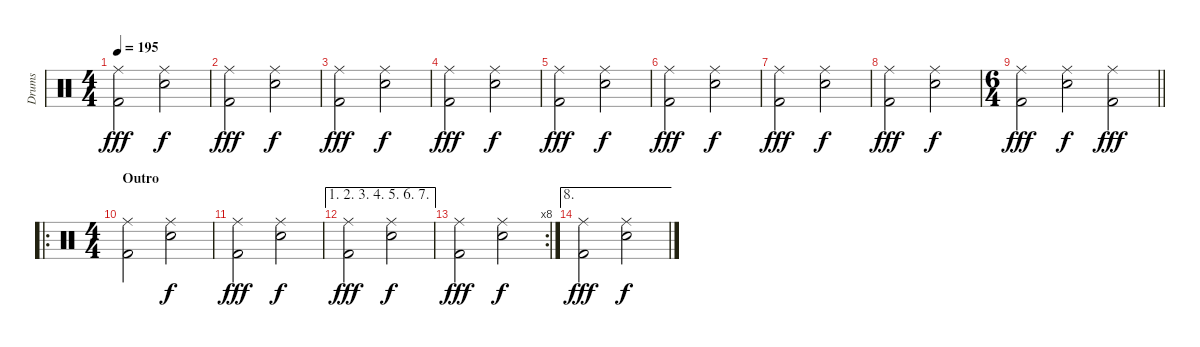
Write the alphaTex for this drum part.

\track ("Drums" "Drums") {instrument percussion}
\staff {score}
\articulation defaults
\ts (4 4)
\tempo 195
\clef neutral
\ks c
("Ride (middle)" "Kick (hit) 2").2{dy fff} ("Ride (middle)" "Snare (hit) 2").2{dy f} |
("Ride (middle)" "Kick (hit) 2").2{dy fff} ("Ride (middle)" "Snare (hit) 2").2{dy f} |
("Ride (middle)" "Kick (hit) 2").2{dy fff} ("Ride (middle)" "Snare (hit) 2").2{dy f} |
("Ride (middle)" "Kick (hit) 2").2{dy fff} ("Ride (middle)" "Snare (hit) 2").2{dy f} |
("Ride (middle)" "Kick (hit) 2").2{dy fff} ("Ride (middle)" "Snare (hit) 2").2{dy f} |
("Ride (middle)" "Kick (hit) 2").2{dy fff} ("Ride (middle)" "Snare (hit) 2").2{dy f} |
("Ride (middle)" "Kick (hit) 2").2{dy fff} ("Ride (middle)" "Snare (hit) 2").2{dy f} |
("Ride (middle)" "Kick (hit) 2").2{dy fff} ("Ride (middle)" "Snare (hit) 2").2{dy f} |
\ts (6 4)
\barLineRight lightlight
("Ride (middle)" "Kick (hit) 2").2{dy fff} ("Ride (middle)" "Snare (hit) 2").2{dy f} ("Ride (middle)" "Kick (hit) 2").2{dy fff} |
\ro
\ts (4 4)
\section ("" "Outro")
("Ride (middle)" "Kick (hit) 2").2 ("Ride (middle)" "Snare (hit) 2").2{dy f} |
("Ride (middle)" "Kick (hit) 2").2{dy fff} ("Ride (middle)" "Snare (hit) 2").2{dy f} |
\ae (1 2 3 4 5 6 7)
("Ride (middle)" "Kick (hit) 2").2{dy fff} ("Ride (middle)" "Snare (hit) 2").2{dy f} |
\rc 8
("Ride (middle)" "Kick (hit) 2").2{dy fff} ("Ride (middle)" "Snare (hit) 2").2{dy f} |
\ae 8
("Ride (middle)" "Kick (hit) 2").2{dy fff} ("Ride (middle)" "Snare (hit) 2").2{dy f}
